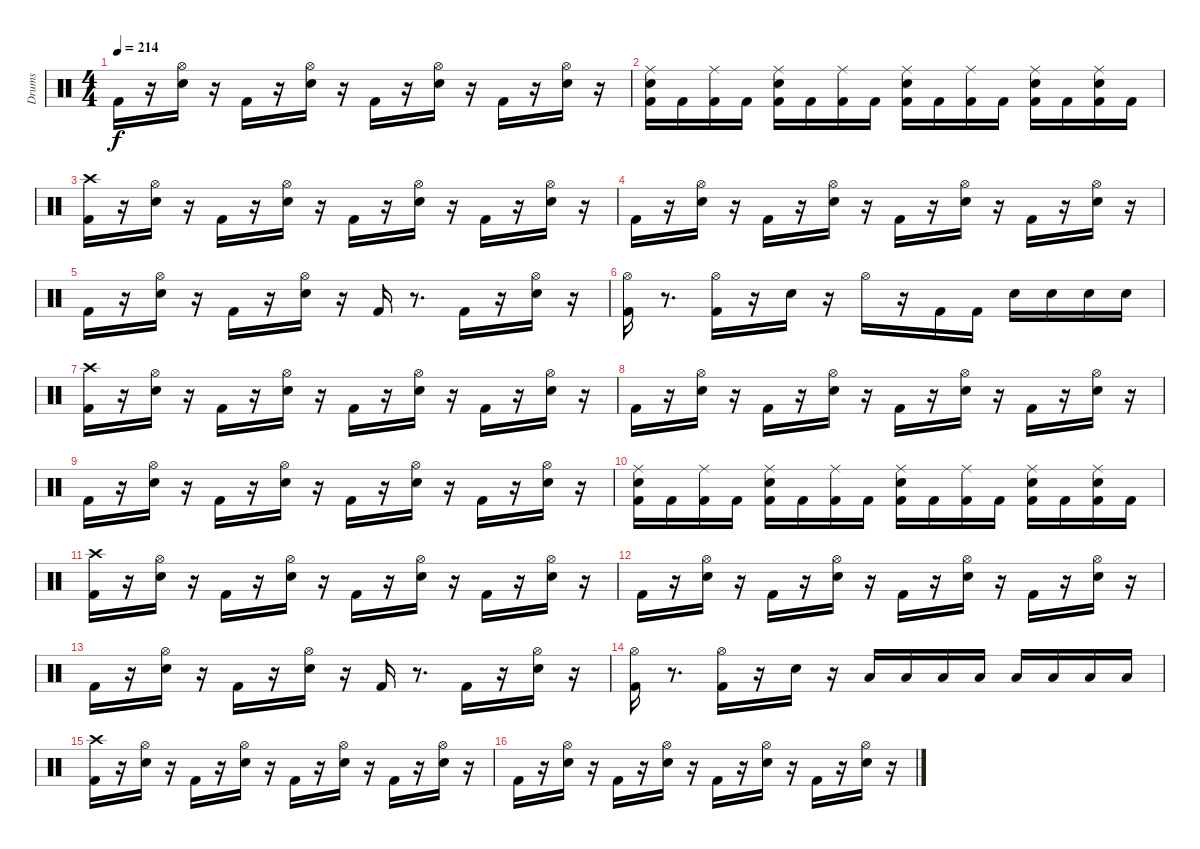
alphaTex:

\track ("Drums               " "Drums     ") {instrument percussion}
\staff {score}
\articulation defaults
\ts (4 4)
\tempo 214
\clef neutral
\ks c "Kick (hit) 2".16{dy f}
r.16 ("Snare (hit) 2" "Hi-Hat (open)").16 r.16 "Kick (hit) 2".16 r.16 ("Snare (hit) 2" "Hi-Hat (open)").16 r.16 "Kick (hit) 2".16 r.16 ("Snare (hit) 2" "Hi-Hat (open)").16 r.16 "Kick (hit) 2".16 r.16 ("Snare (hit) 2" "Hi-Hat (open)").16 r.16 |
("Kick (hit) 2" "Snare (hit) 2" "Ride (middle)").16 "Kick (hit) 2".16 ("Kick (hit) 2" "Ride (middle)").16 "Kick (hit) 2".16 ("Kick (hit) 2" "Snare (hit) 2" "Ride (middle)").16 "Kick (hit) 2".16 ("Kick (hit) 2" "Ride (middle)").16 "Kick (hit) 2".16 ("Kick (hit) 2" "Snare (hit) 2" "Ride (middle)").16 "Kick (hit) 2".16 ("Kick (hit) 2" "Ride (middle)").16 "Kick (hit) 2".16 ("Kick (hit) 2" "Snare (hit) 2" "Ride (middle)").16 "Kick (hit) 2".16 ("Kick (hit) 2" "Snare (hit) 2" "Ride (middle)").16 "Kick (hit) 2".16 |
("Kick (hit) 2" "Crash high (hit)").16 r.16 ("Snare (hit) 2" "Hi-Hat (open)").16 r.16 "Kick (hit) 2".16 r.16 ("Snare (hit) 2" "Hi-Hat (open)").16 r.16 "Kick (hit) 2".16 r.16 ("Snare (hit) 2" "Hi-Hat (open)").16 r.16 "Kick (hit) 2".16 r.16 ("Snare (hit) 2" "Hi-Hat (open)").16 r.16 |
"Kick (hit) 2".16 r.16 ("Snare (hit) 2" "Hi-Hat (open)").16 r.16 "Kick (hit) 2".16 r.16 ("Snare (hit) 2" "Hi-Hat (open)").16 r.16 "Kick (hit) 2".16 r.16 ("Snare (hit) 2" "Hi-Hat (open)").16 r.16 "Kick (hit) 2".16 r.16 ("Snare (hit) 2" "Hi-Hat (open)").16 r.16 |
"Kick (hit) 2".16 r.16 ("Snare (hit) 2" "Hi-Hat (open)").16 r.16 "Kick (hit) 2".16 r.16 ("Snare (hit) 2" "Hi-Hat (open)").16 r.16 "Kick (hit) 2".16 r.8{d} "Kick (hit) 2".16 r.16 ("Snare (hit) 2" "Hi-Hat (open)").16 r.16 |
("Kick (hit) 2" "Hi-Hat (open)").16 r.8{d} ("Kick (hit) 2" "Hi-Hat (open)").16 r.16 "Snare (hit) 2".16 r.16 "Hi-Hat (open)".16 r.16 "Kick (hit) 2".16 "Kick (hit) 2".16 "Snare (hit) 2".16 "Snare (hit) 2".16 "Snare (hit) 2".16 "Snare (hit) 2".16 |
("Kick (hit) 2" "Crash high (hit)").16 r.16 ("Snare (hit) 2" "Hi-Hat (open)").16 r.16 "Kick (hit) 2".16 r.16 ("Snare (hit) 2" "Hi-Hat (open)").16 r.16 "Kick (hit) 2".16 r.16 ("Snare (hit) 2" "Hi-Hat (open)").16 r.16 "Kick (hit) 2".16 r.16 ("Snare (hit) 2" "Hi-Hat (open)").16 r.16 |
"Kick (hit) 2".16 r.16 ("Snare (hit) 2" "Hi-Hat (open)").16 r.16 "Kick (hit) 2".16 r.16 ("Snare (hit) 2" "Hi-Hat (open)").16 r.16 "Kick (hit) 2".16 r.16 ("Snare (hit) 2" "Hi-Hat (open)").16 r.16 "Kick (hit) 2".16 r.16 ("Snare (hit) 2" "Hi-Hat (open)").16 r.16 |
"Kick (hit) 2".16 r.16 ("Snare (hit) 2" "Hi-Hat (open)").16 r.16 "Kick (hit) 2".16 r.16 ("Snare (hit) 2" "Hi-Hat (open)").16 r.16 "Kick (hit) 2".16 r.16 ("Snare (hit) 2" "Hi-Hat (open)").16 r.16 "Kick (hit) 2".16 r.16 ("Snare (hit) 2" "Hi-Hat (open)").16 r.16 |
("Kick (hit) 2" "Snare (hit) 2" "Ride (middle)").16 "Kick (hit) 2".16 ("Kick (hit) 2" "Ride (middle)").16 "Kick (hit) 2".16 ("Kick (hit) 2" "Snare (hit) 2" "Ride (middle)").16 "Kick (hit) 2".16 ("Kick (hit) 2" "Ride (middle)").16 "Kick (hit) 2".16 ("Kick (hit) 2" "Snare (hit) 2" "Ride (middle)").16 "Kick (hit) 2".16 ("Kick (hit) 2" "Ride (middle)").16 "Kick (hit) 2".16 ("Kick (hit) 2" "Snare (hit) 2" "Ride (middle)").16 "Kick (hit) 2".16 ("Kick (hit) 2" "Snare (hit) 2" "Ride (middle)").16 "Kick (hit) 2".16 |
("Kick (hit) 2" "Crash high (hit)").16 r.16 ("Snare (hit) 2" "Hi-Hat (open)").16 r.16 "Kick (hit) 2".16 r.16 ("Snare (hit) 2" "Hi-Hat (open)").16 r.16 "Kick (hit) 2".16 r.16 ("Snare (hit) 2" "Hi-Hat (open)").16 r.16 "Kick (hit) 2".16 r.16 ("Snare (hit) 2" "Hi-Hat (open)").16 r.16 |
"Kick (hit) 2".16 r.16 ("Snare (hit) 2" "Hi-Hat (open)").16 r.16 "Kick (hit) 2".16 r.16 ("Snare (hit) 2" "Hi-Hat (open)").16 r.16 "Kick (hit) 2".16 r.16 ("Snare (hit) 2" "Hi-Hat (open)").16 r.16 "Kick (hit) 2".16 r.16 ("Snare (hit) 2" "Hi-Hat (open)").16 r.16 |
"Kick (hit) 2".16 r.16 ("Snare (hit) 2" "Hi-Hat (open)").16 r.16 "Kick (hit) 2".16 r.16 ("Snare (hit) 2" "Hi-Hat (open)").16 r.16 "Kick (hit) 2".16 r.8{d} "Kick (hit) 2".16 r.16 ("Snare (hit) 2" "Hi-Hat (open)").16 r.16 |
("Kick (hit) 2" "Hi-Hat (open)").16 r.8{d} ("Kick (hit) 2" "Hi-Hat (open)").16 r.16 "Snare (hit) 2".16 r.16 "Low Tom (hit)".16 "Low Tom (hit)".16 "Low Tom (hit)".16 "Low Tom (hit)".16 "Low Floor Tom (hit)".16 "Low Floor Tom (hit)".16 "Low Floor Tom (hit)".16 "Low Floor Tom (hit)".16 |
("Kick (hit) 2" "Crash high (hit)").16 r.16 ("Snare (hit) 2" "Hi-Hat (open)").16 r.16 "Kick (hit) 2".16 r.16 ("Snare (hit) 2" "Hi-Hat (open)").16 r.16 "Kick (hit) 2".16 r.16 ("Snare (hit) 2" "Hi-Hat (open)").16 r.16 "Kick (hit) 2".16 r.16 ("Snare (hit) 2" "Hi-Hat (open)").16 r.16 |
"Kick (hit) 2".16 r.16 ("Snare (hit) 2" "Hi-Hat (open)").16 r.16 "Kick (hit) 2".16 r.16 ("Snare (hit) 2" "Hi-Hat (open)").16 r.16 "Kick (hit) 2".16 r.16 ("Snare (hit) 2" "Hi-Hat (open)").16 r.16 "Kick (hit) 2".16 r.16 ("Snare (hit) 2" "Hi-Hat (open)").16 r.16
